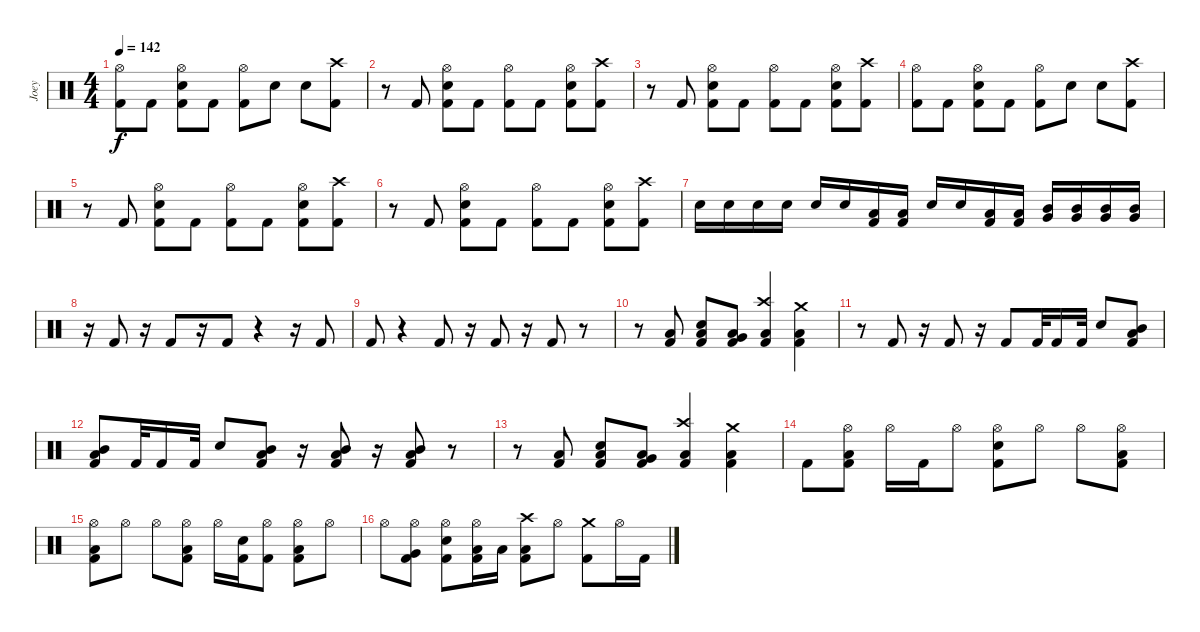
\track ("Joey" "Joey") {instrument percussion}
\staff {score}
\articulation defaults
\ts (4 4)
\tempo 142
\clef neutral
\ks c
("Hi-Hat (open)" "Kick (hit) 2").8{dy f} "Kick (hit) 2".8 ("Hi-Hat (open)" "Electric Snare (hit)" "Kick (hit) 2").8 "Kick (hit) 2".8 ("Hi-Hat (open)" "Kick (hit) 2").8 "Electric Snare (hit)".8 "Electric Snare (hit)".8 ("Crash high (hit)" "Kick (hit) 2").8 |
r.8 "Kick (hit) 2".8 ("Hi-Hat (open)" "Electric Snare (hit)" "Kick (hit) 2").8 "Kick (hit) 2".8 ("Hi-Hat (open)" "Kick (hit) 2").8 "Kick (hit) 2".8 ("Hi-Hat (open)" "Electric Snare (hit)" "Kick (hit) 2").8 ("Crash high (hit)" "Kick (hit) 2").8 |
r.8 "Kick (hit) 2".8 ("Hi-Hat (open)" "Electric Snare (hit)" "Kick (hit) 2").8 "Kick (hit) 2".8 ("Hi-Hat (open)" "Kick (hit) 2").8 "Kick (hit) 2".8 ("Hi-Hat (open)" "Electric Snare (hit)" "Kick (hit) 2").8 ("Crash high (hit)" "Kick (hit) 2").8 |
("Hi-Hat (open)" "Kick (hit) 2").8 "Kick (hit) 2".8 ("Hi-Hat (open)" "Electric Snare (hit)" "Kick (hit) 2").8 "Kick (hit) 2".8 ("Hi-Hat (open)" "Kick (hit) 2").8 "Electric Snare (hit)".8 "Electric Snare (hit)".8 ("Crash high (hit)" "Kick (hit) 2").8 |
r.8 "Kick (hit) 2".8 ("Hi-Hat (open)" "Electric Snare (hit)" "Kick (hit) 2").8 "Kick (hit) 2".8 ("Hi-Hat (open)" "Kick (hit) 2").8 "Kick (hit) 2".8 ("Hi-Hat (open)" "Electric Snare (hit)" "Kick (hit) 2").8 ("Crash high (hit)" "Kick (hit) 2").8 |
r.8 "Kick (hit) 2".8 ("Hi-Hat (open)" "Electric Snare (hit)" "Kick (hit) 2").8 "Kick (hit) 2".8 ("Hi-Hat (open)" "Kick (hit) 2").8 "Kick (hit) 2".8 ("Hi-Hat (open)" "Electric Snare (hit)" "Kick (hit) 2").8 ("Crash high (hit)" "Kick (hit) 2").8 |
"Electric Snare (hit)".16 "Electric Snare (hit)".16 "Electric Snare (hit)".16 "Electric Snare (hit)".16 "Electric Snare (hit)".16 "Electric Snare (hit)".16 ("Low Floor Tom (hit)" "Kick (hit) 2").16 ("Low Floor Tom (hit)" "Kick (hit) 2").16 "Electric Snare (hit)".16 "Electric Snare (hit)".16 ("Low Floor Tom (hit)" "Kick (hit) 2").16 ("Low Floor Tom (hit)" "Kick (hit) 2").16 ("Very Low Tom (hit)" "Mid Tom (hit)").16 ("Very Low Tom (hit)" "Mid Tom (hit)").16 ("Very Low Tom (hit)" "Mid Tom (hit)").16 ("Very Low Tom (hit)" "Mid Tom (hit)").16 |
r.16 "Kick (hit) 2".8 r.16 "Kick (hit) 2".8 r.16 "Kick (hit) 2".8 r.4 r.16 "Kick (hit) 2".8 |
"Kick (hit) 2".8 r.4 "Kick (hit) 2".8 r.16 "Kick (hit) 2".8 r.16 "Kick (hit) 2".8 r.8 |
r.8 ("Low Floor Tom (hit)" "Kick (hit) 2").8 ("Electric Snare (hit)" "Low Floor Tom (hit)" "Kick (hit) 2").8 ("Very Low Tom (hit)" "Low Floor Tom (hit)" "Kick (hit) 2").8 ("Crash high (hit)" "Low Floor Tom (hit)" "Kick (hit) 2").4 ("Crash medium (hit)" "Low Floor Tom (hit)" "Kick (hit) 2").4 |
r.8 "Kick (hit) 2".8 r.16 "Kick (hit) 2".8 r.16 "Kick (hit) 2".8 "Kick (hit) 2".32 "Kick (hit) 2".16 "Kick (hit) 2".32 "Electric Snare (hit)".8 ("Mid Tom (hit)" "Low Floor Tom (hit)" "Kick (hit) 2").8 |
("Mid Tom (hit)" "Low Floor Tom (hit)" "Kick (hit) 2").8 "Kick (hit) 2".32 "Kick (hit) 2".16 "Kick (hit) 2".32 "Electric Snare (hit)".8 ("Mid Tom (hit)" "Low Floor Tom (hit)" "Kick (hit) 2").8 r.16 ("Mid Tom (hit)" "Low Floor Tom (hit)" "Kick (hit) 2").8 r.16 ("Mid Tom (hit)" "Low Floor Tom (hit)" "Kick (hit) 2").8 r.8 |
r.8 ("Low Floor Tom (hit)" "Kick (hit) 2").8 ("Electric Snare (hit)" "Low Floor Tom (hit)" "Kick (hit) 2").8 ("Very Low Tom (hit)" "Low Floor Tom (hit)" "Kick (hit) 2").8 ("Crash high (hit)" "Low Floor Tom (hit)" "Kick (hit) 2").4 ("Crash medium (hit)" "Low Floor Tom (hit)" "Kick (hit) 2").4 |
"Kick (hit) 2".8 ("Hi-Hat (open)" "Low Floor Tom (hit)" "Kick (hit) 2").8 "Hi-Hat (open)".16 "Kick (hit) 2".16 "Hi-Hat (open)".8 ("Hi-Hat (open)" "Electric Snare (hit)" "Kick (hit) 2").8 "Hi-Hat (open)".8 "Hi-Hat (open)".8 ("Hi-Hat (open)" "Low Floor Tom (hit)" "Kick (hit) 2").8 |
("Hi-Hat (open)" "Low Floor Tom (hit)" "Kick (hit) 2").8 "Hi-Hat (open)".8 "Hi-Hat (open)".8 ("Hi-Hat (open)" "Low Floor Tom (hit)" "Kick (hit) 2").8 "Hi-Hat (open)".16 ("Electric Snare (hit)" "Kick (hit) 2").16 ("Hi-Hat (open)" "Kick (hit) 2").8 ("Hi-Hat (open)" "Low Floor Tom (hit)" "Kick (hit) 2").8 "Hi-Hat (open)".8 |
"Hi-Hat (open)".8 ("Hi-Hat (open)" "Very Low Tom (hit)" "Kick (hit) 2").8 ("Hi-Hat (open)" "Electric Snare (hit)" "Kick (hit) 2").8 ("Hi-Hat (open)" "Low Floor Tom (hit)" "Kick (hit) 2").16 "Low Floor Tom (hit)".16 ("Crash high (hit)" "Low Floor Tom (hit)" "Kick (hit) 2").8 "Hi-Hat (open)".8 ("Crash medium (hit)" "Kick (hit) 2").8 "Hi-Hat (open)".16 "Kick (hit) 2".16
